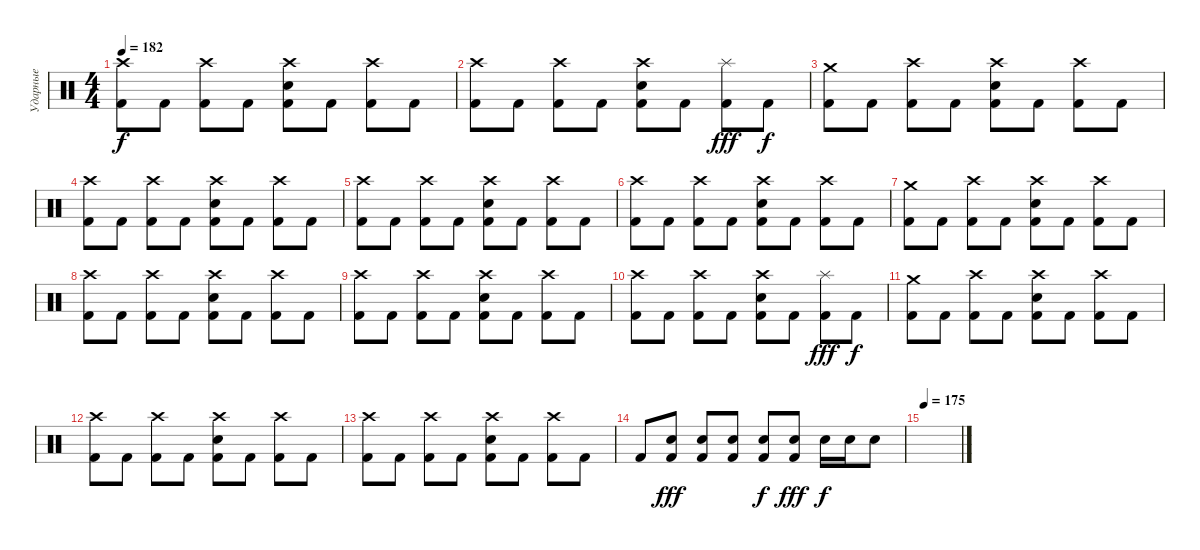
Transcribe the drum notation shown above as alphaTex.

\track ("Ударные" "Ударные") {instrument percussion}
\staff {score}
\articulation defaults
\ts (4 4)
\tempo 182
\clef neutral
\ks c
("Crash high (hit)" "Kick (hit) 2").8{dy f} "Kick (hit) 2".8 ("Crash high (hit)" "Kick (hit) 2").8 "Kick (hit) 2".8 ("Crash high (hit)" "Electric Snare (hit)" "Kick (hit) 2").8 "Kick (hit) 2".8 ("Crash high (hit)" "Kick (hit) 2").8 "Kick (hit) 2".8 |
("Crash high (hit)" "Kick (hit) 2").8 "Kick (hit) 2".8 ("Crash high (hit)" "Kick (hit) 2").8 "Kick (hit) 2".8 ("Crash high (hit)" "Electric Snare (hit)" "Kick (hit) 2").8 "Kick (hit) 2".8 ("Splash (hit)" "Kick (hit) 2").8{dy fff} "Kick (hit) 2".8{dy f} |
("Crash medium (hit)" "Kick (hit) 2").8 "Kick (hit) 2".8 ("Crash high (hit)" "Kick (hit) 2").8 "Kick (hit) 2".8 ("Crash high (hit)" "Electric Snare (hit)" "Kick (hit) 2").8 "Kick (hit) 2".8 ("Crash high (hit)" "Kick (hit) 2").8 "Kick (hit) 2".8 |
("Crash high (hit)" "Kick (hit) 2").8 "Kick (hit) 2".8 ("Crash high (hit)" "Kick (hit) 2").8 "Kick (hit) 2".8 ("Crash high (hit)" "Electric Snare (hit)" "Kick (hit) 2").8 "Kick (hit) 2".8 ("Crash high (hit)" "Kick (hit) 2").8 "Kick (hit) 2".8 |
("Crash high (hit)" "Kick (hit) 2").8 "Kick (hit) 2".8 ("Crash high (hit)" "Kick (hit) 2").8 "Kick (hit) 2".8 ("Crash high (hit)" "Electric Snare (hit)" "Kick (hit) 2").8 "Kick (hit) 2".8 ("Crash high (hit)" "Kick (hit) 2").8 "Kick (hit) 2".8 |
("Crash high (hit)" "Kick (hit) 2").8 "Kick (hit) 2".8 ("Crash high (hit)" "Kick (hit) 2").8 "Kick (hit) 2".8 ("Crash high (hit)" "Electric Snare (hit)" "Kick (hit) 2").8 "Kick (hit) 2".8 ("Crash high (hit)" "Kick (hit) 2").8 "Kick (hit) 2".8 |
("Crash medium (hit)" "Kick (hit) 2").8 "Kick (hit) 2".8 ("Crash high (hit)" "Kick (hit) 2").8 "Kick (hit) 2".8 ("Crash high (hit)" "Electric Snare (hit)" "Kick (hit) 2").8 "Kick (hit) 2".8 ("Crash high (hit)" "Kick (hit) 2").8 "Kick (hit) 2".8 |
("Crash high (hit)" "Kick (hit) 2").8 "Kick (hit) 2".8 ("Crash high (hit)" "Kick (hit) 2").8 "Kick (hit) 2".8 ("Crash high (hit)" "Electric Snare (hit)" "Kick (hit) 2").8 "Kick (hit) 2".8 ("Crash high (hit)" "Kick (hit) 2").8 "Kick (hit) 2".8 |
("Crash high (hit)" "Kick (hit) 2").8 "Kick (hit) 2".8 ("Crash high (hit)" "Kick (hit) 2").8 "Kick (hit) 2".8 ("Crash high (hit)" "Electric Snare (hit)" "Kick (hit) 2").8 "Kick (hit) 2".8 ("Crash high (hit)" "Kick (hit) 2").8 "Kick (hit) 2".8 |
("Crash high (hit)" "Kick (hit) 2").8 "Kick (hit) 2".8 ("Crash high (hit)" "Kick (hit) 2").8 "Kick (hit) 2".8 ("Crash high (hit)" "Electric Snare (hit)" "Kick (hit) 2").8 "Kick (hit) 2".8 ("Splash (hit)" "Kick (hit) 2").8{dy fff} "Kick (hit) 2".8{dy f} |
("Crash medium (hit)" "Kick (hit) 2").8 "Kick (hit) 2".8 ("Crash high (hit)" "Kick (hit) 2").8 "Kick (hit) 2".8 ("Crash high (hit)" "Electric Snare (hit)" "Kick (hit) 2").8 "Kick (hit) 2".8 ("Crash high (hit)" "Kick (hit) 2").8 "Kick (hit) 2".8 |
("Crash high (hit)" "Kick (hit) 2").8 "Kick (hit) 2".8 ("Crash high (hit)" "Kick (hit) 2").8 "Kick (hit) 2".8 ("Crash high (hit)" "Electric Snare (hit)" "Kick (hit) 2").8 "Kick (hit) 2".8 ("Crash high (hit)" "Kick (hit) 2").8 "Kick (hit) 2".8 |
("Crash high (hit)" "Kick (hit) 2").8 "Kick (hit) 2".8 ("Crash high (hit)" "Kick (hit) 2").8 "Kick (hit) 2".8 ("Crash high (hit)" "Electric Snare (hit)" "Kick (hit) 2").8 "Kick (hit) 2".8 ("Crash high (hit)" "Kick (hit) 2").8 "Kick (hit) 2".8 |
"Kick (hit) 2".8 ("Electric Snare (hit)" "Kick (hit) 2").8{dy fff} ("Electric Snare (hit)" "Kick (hit) 2").8 ("Electric Snare (hit)" "Kick (hit) 2").8 ("Electric Snare (hit)" "Kick (hit) 2").8{dy f} ("Electric Snare (hit)" "Kick (hit) 2").8{dy fff} "Electric Snare (hit)".16{dy f} "Electric Snare (hit)".16 "Electric Snare (hit)".8 |
\tempo 175
